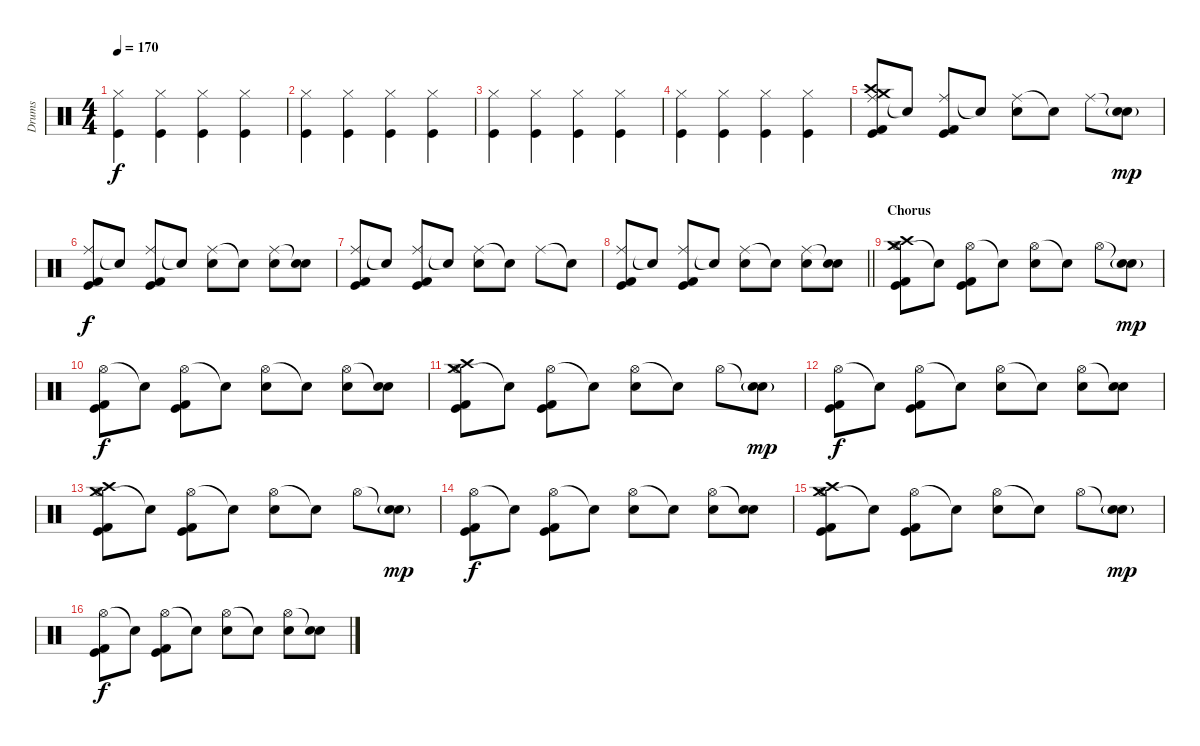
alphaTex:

\track ("Drums" "Drums") {instrument percussion}
\staff {score}
\articulation defaults
\ts (4 4)
\tempo 170
\clef neutral
\ks c
("Hi-Hat (closed)" "Kick (hit)").4{dy f} ("Hi-Hat (closed)" "Kick (hit)").4 ("Hi-Hat (closed)" "Kick (hit)").4 ("Hi-Hat (closed)" "Kick (hit)").4 |
("Hi-Hat (closed)" "Kick (hit)").4 ("Hi-Hat (closed)" "Kick (hit)").4 ("Hi-Hat (closed)" "Kick (hit)").4 ("Hi-Hat (closed)" "Kick (hit)").4 |
("Hi-Hat (closed)" "Kick (hit)").4 ("Hi-Hat (closed)" "Kick (hit)").4 ("Hi-Hat (closed)" "Kick (hit)").4 ("Hi-Hat (closed)" "Kick (hit)").4 |
("Hi-Hat (closed)" "Kick (hit)").4 ("Hi-Hat (closed)" "Kick (hit)").4 ("Hi-Hat (closed)" "Kick (hit)").4 ("Hi-Hat (closed)" "Kick (hit)").4 |
("Ride (middle)" "Crash high (hit)" "Crash medium (hit)" "Kick (hit)" "Kick (hit) 2").8 "Snare (hit)"{t}.8 ("Ride (middle)" "Kick (hit)" "Kick (hit) 2").8 "Snare (hit)"{t}.8 ("Ride (middle)" "Electric Snare (hit)").8 "Snare (hit)"{t}.8 "Ride (middle)".8 ("Snare (hit)"{t} "Electric Snare (hit)"{g}).8{dy mp} |
("Ride (middle)" "Kick (hit)" "Kick (hit) 2").8{dy f} "Snare (hit)"{t}.8 ("Ride (middle)" "Kick (hit)" "Kick (hit) 2").8 "Snare (hit)"{t}.8 ("Ride (middle)" "Electric Snare (hit)").8 "Snare (hit)"{t}.8 ("Ride (middle)" "Electric Snare (hit)").8 ("Snare (hit)"{t} "Electric Snare (hit)").8 |
("Ride (middle)" "Kick (hit)" "Kick (hit) 2").8 "Snare (hit)"{t}.8 ("Ride (middle)" "Kick (hit)" "Kick (hit) 2").8 "Snare (hit)"{t}.8 ("Ride (middle)" "Electric Snare (hit)").8 "Snare (hit)"{t}.8 "Ride (middle)".8 "Snare (hit)"{t}.8 |
\barLineRight lightlight
("Ride (middle)" "Kick (hit)" "Kick (hit) 2").8 "Snare (hit)"{t}.8 ("Ride (middle)" "Kick (hit)" "Kick (hit) 2").8 "Snare (hit)"{t}.8 ("Ride (middle)" "Electric Snare (hit)").8 "Snare (hit)"{t}.8 ("Ride (middle)" "Electric Snare (hit)").8 ("Snare (hit)"{t} "Electric Snare (hit)").8 |
\section ("" "Chorus")
("Hi-Hat (open)" "Crash high (hit)" "Crash medium (hit)" "Kick (hit)" "Kick (hit) 2").8 "Snare (hit)"{t}.8 ("Hi-Hat (open)" "Kick (hit)" "Kick (hit) 2").8 "Snare (hit)"{t}.8 ("Hi-Hat (open)" "Electric Snare (hit)").8 "Snare (hit)"{t}.8 "Hi-Hat (open)".8 ("Snare (hit)"{t} "Electric Snare (hit)"{g}).8{dy mp} |
("Hi-Hat (open)" "Kick (hit)" "Kick (hit) 2").8{dy f} "Snare (hit)"{t}.8 ("Hi-Hat (open)" "Kick (hit)" "Kick (hit) 2").8 "Snare (hit)"{t}.8 ("Hi-Hat (open)" "Electric Snare (hit)").8 "Snare (hit)"{t}.8 ("Hi-Hat (open)" "Electric Snare (hit)").8 ("Snare (hit)"{t} "Electric Snare (hit)").8 |
("Hi-Hat (open)" "Crash high (hit)" "Crash medium (hit)" "Kick (hit)" "Kick (hit) 2").8 "Snare (hit)"{t}.8 ("Hi-Hat (open)" "Kick (hit)" "Kick (hit) 2").8 "Snare (hit)"{t}.8 ("Hi-Hat (open)" "Electric Snare (hit)").8 "Snare (hit)"{t}.8 "Hi-Hat (open)".8 ("Snare (hit)"{t} "Electric Snare (hit)"{g}).8{dy mp} |
("Hi-Hat (open)" "Kick (hit)" "Kick (hit) 2").8{dy f} "Snare (hit)"{t}.8 ("Hi-Hat (open)" "Kick (hit)" "Kick (hit) 2").8 "Snare (hit)"{t}.8 ("Hi-Hat (open)" "Electric Snare (hit)").8 "Snare (hit)"{t}.8 ("Hi-Hat (open)" "Electric Snare (hit)").8 ("Snare (hit)"{t} "Electric Snare (hit)").8 |
("Hi-Hat (open)" "Crash high (hit)" "Crash medium (hit)" "Kick (hit)" "Kick (hit) 2").8 "Snare (hit)"{t}.8 ("Hi-Hat (open)" "Kick (hit)" "Kick (hit) 2").8 "Snare (hit)"{t}.8 ("Hi-Hat (open)" "Electric Snare (hit)").8 "Snare (hit)"{t}.8 "Hi-Hat (open)".8 ("Snare (hit)"{t} "Electric Snare (hit)"{g}).8{dy mp} |
("Hi-Hat (open)" "Kick (hit)" "Kick (hit) 2").8{dy f} "Snare (hit)"{t}.8 ("Hi-Hat (open)" "Kick (hit)" "Kick (hit) 2").8 "Snare (hit)"{t}.8 ("Hi-Hat (open)" "Electric Snare (hit)").8 "Snare (hit)"{t}.8 ("Hi-Hat (open)" "Electric Snare (hit)").8 ("Snare (hit)"{t} "Electric Snare (hit)").8 |
("Hi-Hat (open)" "Crash high (hit)" "Crash medium (hit)" "Kick (hit)" "Kick (hit) 2").8 "Snare (hit)"{t}.8 ("Hi-Hat (open)" "Kick (hit)" "Kick (hit) 2").8 "Snare (hit)"{t}.8 ("Hi-Hat (open)" "Electric Snare (hit)").8 "Snare (hit)"{t}.8 "Hi-Hat (open)".8 ("Snare (hit)"{t} "Electric Snare (hit)"{g}).8{dy mp} |
("Hi-Hat (open)" "Kick (hit)" "Kick (hit) 2").8{dy f} "Snare (hit)"{t}.8 ("Hi-Hat (open)" "Kick (hit)" "Kick (hit) 2").8 "Snare (hit)"{t}.8 ("Hi-Hat (open)" "Electric Snare (hit)").8 "Snare (hit)"{t}.8 ("Hi-Hat (open)" "Electric Snare (hit)").8 ("Snare (hit)"{t} "Electric Snare (hit)").8
